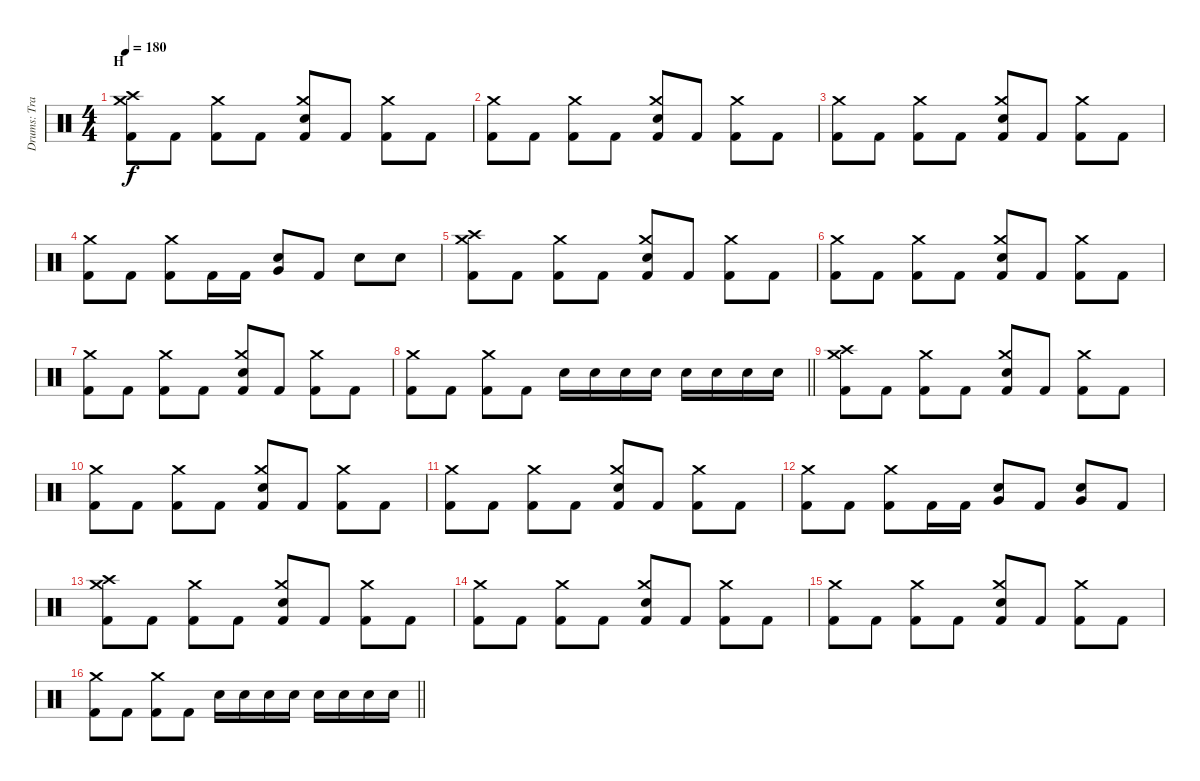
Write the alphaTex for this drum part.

\track ("Drums: Travis Clarke" "Drums: Tra") {instrument percussion}
\staff {score}
\articulation defaults
\ts (4 4)
\section ("" "H")
\tempo 180
\clef neutral
\ks c
("Kick (hit) 2" "Crash high (hit)" "Crash medium (hit)").8{dy f} "Kick (hit) 2".8 ("Kick (hit) 2" "Crash medium (hit)").8 "Kick (hit) 2".8 ("Kick (hit) 2" "Snare (hit) 2" "Crash medium (hit)").8 "Kick (hit) 2".8 ("Kick (hit) 2" "Crash medium (hit)").8 "Kick (hit) 2".8 |
("Kick (hit) 2" "Crash medium (hit)").8 "Kick (hit) 2".8 ("Kick (hit) 2" "Crash medium (hit)").8 "Kick (hit) 2".8 ("Kick (hit) 2" "Snare (hit) 2" "Crash medium (hit)").8 "Kick (hit) 2".8 ("Kick (hit) 2" "Crash medium (hit)").8 "Kick (hit) 2".8 |
("Kick (hit) 2" "Crash medium (hit)").8 "Kick (hit) 2".8 ("Kick (hit) 2" "Crash medium (hit)").8 "Kick (hit) 2".8 ("Kick (hit) 2" "Snare (hit) 2" "Crash medium (hit)").8 "Kick (hit) 2".8 ("Kick (hit) 2" "Crash medium (hit)").8 "Kick (hit) 2".8 |
("Kick (hit) 2" "Crash medium (hit)").8 "Kick (hit) 2".8 ("Kick (hit) 2" "Crash medium (hit)").8 "Kick (hit) 2".16 "Kick (hit) 2".16 ("Snare (hit) 2" "Very Low Tom (hit)").8 "Kick (hit) 2".8 "Snare (hit) 2".8 "Snare (hit) 2".8 |
("Kick (hit) 2" "Crash high (hit)" "Crash medium (hit)").8 "Kick (hit) 2".8 ("Kick (hit) 2" "Crash medium (hit)").8 "Kick (hit) 2".8 ("Kick (hit) 2" "Snare (hit) 2" "Crash medium (hit)").8 "Kick (hit) 2".8 ("Kick (hit) 2" "Crash medium (hit)").8 "Kick (hit) 2".8 |
("Kick (hit) 2" "Crash medium (hit)").8 "Kick (hit) 2".8 ("Kick (hit) 2" "Crash medium (hit)").8 "Kick (hit) 2".8 ("Kick (hit) 2" "Snare (hit) 2" "Crash medium (hit)").8 "Kick (hit) 2".8 ("Kick (hit) 2" "Crash medium (hit)").8 "Kick (hit) 2".8 |
("Kick (hit) 2" "Crash medium (hit)").8 "Kick (hit) 2".8 ("Kick (hit) 2" "Crash medium (hit)").8 "Kick (hit) 2".8 ("Kick (hit) 2" "Snare (hit) 2" "Crash medium (hit)").8 "Kick (hit) 2".8 ("Kick (hit) 2" "Crash medium (hit)").8 "Kick (hit) 2".8 |
\barLineRight lightlight
("Kick (hit) 2" "Crash medium (hit)").8 "Kick (hit) 2".8 ("Kick (hit) 2" "Crash medium (hit)").8 "Kick (hit) 2".8 "Snare (hit) 2".16 "Snare (hit) 2".16 "Snare (hit) 2".16 "Snare (hit) 2".16 "Snare (hit) 2".16 "Snare (hit) 2".16 "Snare (hit) 2".16 "Snare (hit) 2".16 |
("Kick (hit) 2" "Crash high (hit)" "Crash medium (hit)").8 "Kick (hit) 2".8 ("Kick (hit) 2" "Crash medium (hit)").8 "Kick (hit) 2".8 ("Kick (hit) 2" "Snare (hit) 2" "Crash medium (hit)").8 "Kick (hit) 2".8 ("Kick (hit) 2" "Crash medium (hit)").8 "Kick (hit) 2".8 |
("Kick (hit) 2" "Crash medium (hit)").8 "Kick (hit) 2".8 ("Kick (hit) 2" "Crash medium (hit)").8 "Kick (hit) 2".8 ("Kick (hit) 2" "Snare (hit) 2" "Crash medium (hit)").8 "Kick (hit) 2".8 ("Kick (hit) 2" "Crash medium (hit)").8 "Kick (hit) 2".8 |
("Kick (hit) 2" "Crash medium (hit)").8 "Kick (hit) 2".8 ("Kick (hit) 2" "Crash medium (hit)").8 "Kick (hit) 2".8 ("Kick (hit) 2" "Snare (hit) 2" "Crash medium (hit)").8 "Kick (hit) 2".8 ("Kick (hit) 2" "Crash medium (hit)").8 "Kick (hit) 2".8 |
("Kick (hit) 2" "Crash medium (hit)").8 "Kick (hit) 2".8 ("Kick (hit) 2" "Crash medium (hit)").8 "Kick (hit) 2".16 "Kick (hit) 2".16 ("Snare (hit) 2" "Very Low Tom (hit)").8 "Kick (hit) 2".8 ("Snare (hit) 2" "Very Low Tom (hit)").8 "Kick (hit) 2".8 |
("Kick (hit) 2" "Crash high (hit)" "Crash medium (hit)").8 "Kick (hit) 2".8 ("Kick (hit) 2" "Crash medium (hit)").8 "Kick (hit) 2".8 ("Kick (hit) 2" "Snare (hit) 2" "Crash medium (hit)").8 "Kick (hit) 2".8 ("Kick (hit) 2" "Crash medium (hit)").8 "Kick (hit) 2".8 |
("Kick (hit) 2" "Crash medium (hit)").8 "Kick (hit) 2".8 ("Kick (hit) 2" "Crash medium (hit)").8 "Kick (hit) 2".8 ("Kick (hit) 2" "Snare (hit) 2" "Crash medium (hit)").8 "Kick (hit) 2".8 ("Kick (hit) 2" "Crash medium (hit)").8 "Kick (hit) 2".8 |
("Kick (hit) 2" "Crash medium (hit)").8 "Kick (hit) 2".8 ("Kick (hit) 2" "Crash medium (hit)").8 "Kick (hit) 2".8 ("Kick (hit) 2" "Snare (hit) 2" "Crash medium (hit)").8 "Kick (hit) 2".8 ("Kick (hit) 2" "Crash medium (hit)").8 "Kick (hit) 2".8 |
\barLineRight lightlight
("Kick (hit) 2" "Crash medium (hit)").8 "Kick (hit) 2".8 ("Kick (hit) 2" "Crash medium (hit)").8 "Kick (hit) 2".8 "Snare (hit) 2".16 "Snare (hit) 2".16 "Snare (hit) 2".16 "Snare (hit) 2".16 "Snare (hit) 2".16 "Snare (hit) 2".16 "Snare (hit) 2".16 "Snare (hit) 2".16
